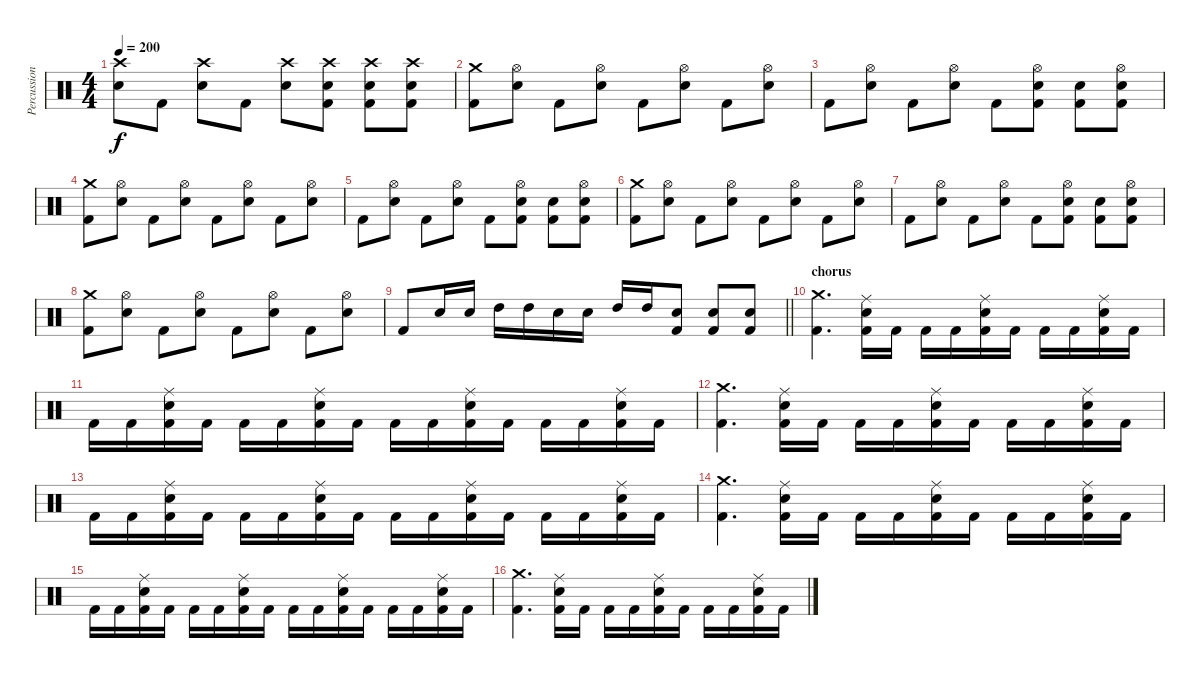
\track ("Percussion" "Percussion") {instrument percussion}
\staff {score}
\articulation defaults
\ts (4 4)
\tempo 200
\clef neutral
\ks c
("Crash high (hit)" "Electric Snare (hit)").8{dy f} "Kick (hit) 2".8 ("Crash high (hit)" "Electric Snare (hit)").8 "Kick (hit) 2".8 ("Crash high (hit)" "Electric Snare (hit)").8 ("Crash high (hit)" "Electric Snare (hit)" "Kick (hit) 2").8 ("Crash high (hit)" "Electric Snare (hit)" "Kick (hit) 2").8 ("Crash high (hit)" "Electric Snare (hit)" "Kick (hit) 2").8 |
("Crash medium (hit)" "Kick (hit) 2").8 ("Hi-Hat (open)" "Electric Snare (hit)").8 "Kick (hit) 2".8 ("Hi-Hat (open)" "Electric Snare (hit)").8 "Kick (hit) 2".8 ("Hi-Hat (open)" "Electric Snare (hit)").8 "Kick (hit) 2".8 ("Hi-Hat (open)" "Electric Snare (hit)").8 |
"Kick (hit) 2".8 ("Hi-Hat (open)" "Electric Snare (hit)").8 "Kick (hit) 2".8 ("Hi-Hat (open)" "Electric Snare (hit)").8 "Kick (hit) 2".8 ("Hi-Hat (open)" "Electric Snare (hit)" "Kick (hit) 2").8 ("Electric Snare (hit)" "Kick (hit) 2").8 ("Hi-Hat (open)" "Electric Snare (hit)" "Kick (hit) 2").8 |
("Crash medium (hit)" "Kick (hit) 2").8 ("Hi-Hat (open)" "Electric Snare (hit)").8 "Kick (hit) 2".8 ("Hi-Hat (open)" "Electric Snare (hit)").8 "Kick (hit) 2".8 ("Hi-Hat (open)" "Electric Snare (hit)").8 "Kick (hit) 2".8 ("Hi-Hat (open)" "Electric Snare (hit)").8 |
"Kick (hit) 2".8 ("Hi-Hat (open)" "Electric Snare (hit)").8 "Kick (hit) 2".8 ("Hi-Hat (open)" "Electric Snare (hit)").8 "Kick (hit) 2".8 ("Hi-Hat (open)" "Electric Snare (hit)" "Kick (hit) 2").8 ("Electric Snare (hit)" "Kick (hit) 2").8 ("Hi-Hat (open)" "Electric Snare (hit)" "Kick (hit) 2").8 |
("Crash medium (hit)" "Kick (hit) 2").8 ("Hi-Hat (open)" "Electric Snare (hit)").8 "Kick (hit) 2".8 ("Hi-Hat (open)" "Electric Snare (hit)").8 "Kick (hit) 2".8 ("Hi-Hat (open)" "Electric Snare (hit)").8 "Kick (hit) 2".8 ("Hi-Hat (open)" "Electric Snare (hit)").8 |
"Kick (hit) 2".8 ("Hi-Hat (open)" "Electric Snare (hit)").8 "Kick (hit) 2".8 ("Hi-Hat (open)" "Electric Snare (hit)").8 "Kick (hit) 2".8 ("Hi-Hat (open)" "Electric Snare (hit)" "Kick (hit) 2").8 ("Electric Snare (hit)" "Kick (hit) 2").8 ("Hi-Hat (open)" "Electric Snare (hit)" "Kick (hit) 2").8 |
("Crash medium (hit)" "Kick (hit) 2").8 ("Hi-Hat (open)" "Electric Snare (hit)").8 "Kick (hit) 2".8 ("Hi-Hat (open)" "Electric Snare (hit)").8 "Kick (hit) 2".8 ("Hi-Hat (open)" "Electric Snare (hit)").8 "Kick (hit) 2".8 ("Hi-Hat (open)" "Electric Snare (hit)").8 |
\barLineRight lightlight "Kick (hit) 2".8 "Electric Snare (hit)".16 "Electric Snare (hit)".16 "High Tom (hit)".16 "High Tom (hit)".16 "Electric Snare (hit)".16 "Electric Snare (hit)".16 "High Tom (hit)".16 "High Tom (hit)".16
("Electric Snare (hit)" "Kick (hit) 2").8 ("Electric Snare (hit)" "Kick (hit) 2").8 ("Electric Snare (hit)" "Kick (hit) 2").8 |
\section ("" "chorus")
("Crash medium (hit)" "Kick (hit) 2").4{d} ("Ride (middle)" "Electric Snare (hit)" "Kick (hit) 2").16 "Kick (hit) 2".16 "Kick (hit) 2".16 "Kick (hit) 2".16 ("Ride (middle)" "Electric Snare (hit)" "Kick (hit) 2").16 "Kick (hit) 2".16 "Kick (hit) 2".16 "Kick (hit) 2".16 ("Ride (middle)" "Electric Snare (hit)" "Kick (hit) 2").16 "Kick (hit) 2".16 |
"Kick (hit) 2".16 "Kick (hit) 2".16 ("Ride (middle)" "Electric Snare (hit)" "Kick (hit) 2").16 "Kick (hit) 2".16 "Kick (hit) 2".16 "Kick (hit) 2".16 ("Ride (middle)" "Electric Snare (hit)" "Kick (hit) 2").16 "Kick (hit) 2".16 "Kick (hit) 2".16 "Kick (hit) 2".16 ("Ride (middle)" "Electric Snare (hit)" "Kick (hit) 2").16 "Kick (hit) 2".16 "Kick (hit) 2".16 "Kick (hit) 2".16 ("Ride (middle)" "Electric Snare (hit)" "Kick (hit) 2").16 "Kick (hit) 2".16 |
("Crash medium (hit)" "Kick (hit) 2").4{d} ("Ride (middle)" "Electric Snare (hit)" "Kick (hit) 2").16 "Kick (hit) 2".16 "Kick (hit) 2".16 "Kick (hit) 2".16 ("Ride (middle)" "Electric Snare (hit)" "Kick (hit) 2").16 "Kick (hit) 2".16 "Kick (hit) 2".16 "Kick (hit) 2".16 ("Ride (middle)" "Electric Snare (hit)" "Kick (hit) 2").16 "Kick (hit) 2".16 |
"Kick (hit) 2".16 "Kick (hit) 2".16 ("Ride (middle)" "Electric Snare (hit)" "Kick (hit) 2").16 "Kick (hit) 2".16 "Kick (hit) 2".16 "Kick (hit) 2".16 ("Ride (middle)" "Electric Snare (hit)" "Kick (hit) 2").16 "Kick (hit) 2".16 "Kick (hit) 2".16 "Kick (hit) 2".16 ("Ride (middle)" "Electric Snare (hit)" "Kick (hit) 2").16 "Kick (hit) 2".16 "Kick (hit) 2".16 "Kick (hit) 2".16 ("Ride (middle)" "Electric Snare (hit)" "Kick (hit) 2").16 "Kick (hit) 2".16 |
("Crash medium (hit)" "Kick (hit) 2").4{d} ("Ride (middle)" "Electric Snare (hit)" "Kick (hit) 2").16 "Kick (hit) 2".16 "Kick (hit) 2".16 "Kick (hit) 2".16 ("Ride (middle)" "Electric Snare (hit)" "Kick (hit) 2").16 "Kick (hit) 2".16 "Kick (hit) 2".16 "Kick (hit) 2".16 ("Ride (middle)" "Electric Snare (hit)" "Kick (hit) 2").16 "Kick (hit) 2".16 |
"Kick (hit) 2".16 "Kick (hit) 2".16 ("Ride (middle)" "Electric Snare (hit)" "Kick (hit) 2").16 "Kick (hit) 2".16 "Kick (hit) 2".16 "Kick (hit) 2".16 ("Ride (middle)" "Electric Snare (hit)" "Kick (hit) 2").16 "Kick (hit) 2".16 "Kick (hit) 2".16 "Kick (hit) 2".16 ("Ride (middle)" "Electric Snare (hit)" "Kick (hit) 2").16 "Kick (hit) 2".16 "Kick (hit) 2".16 "Kick (hit) 2".16 ("Ride (middle)" "Electric Snare (hit)" "Kick (hit) 2").16 "Kick (hit) 2".16 |
("Crash medium (hit)" "Kick (hit) 2").4{d} ("Ride (middle)" "Electric Snare (hit)" "Kick (hit) 2").16 "Kick (hit) 2".16 "Kick (hit) 2".16 "Kick (hit) 2".16 ("Ride (middle)" "Electric Snare (hit)" "Kick (hit) 2").16 "Kick (hit) 2".16 "Kick (hit) 2".16 "Kick (hit) 2".16 ("Ride (middle)" "Electric Snare (hit)" "Kick (hit) 2").16 "Kick (hit) 2".16
